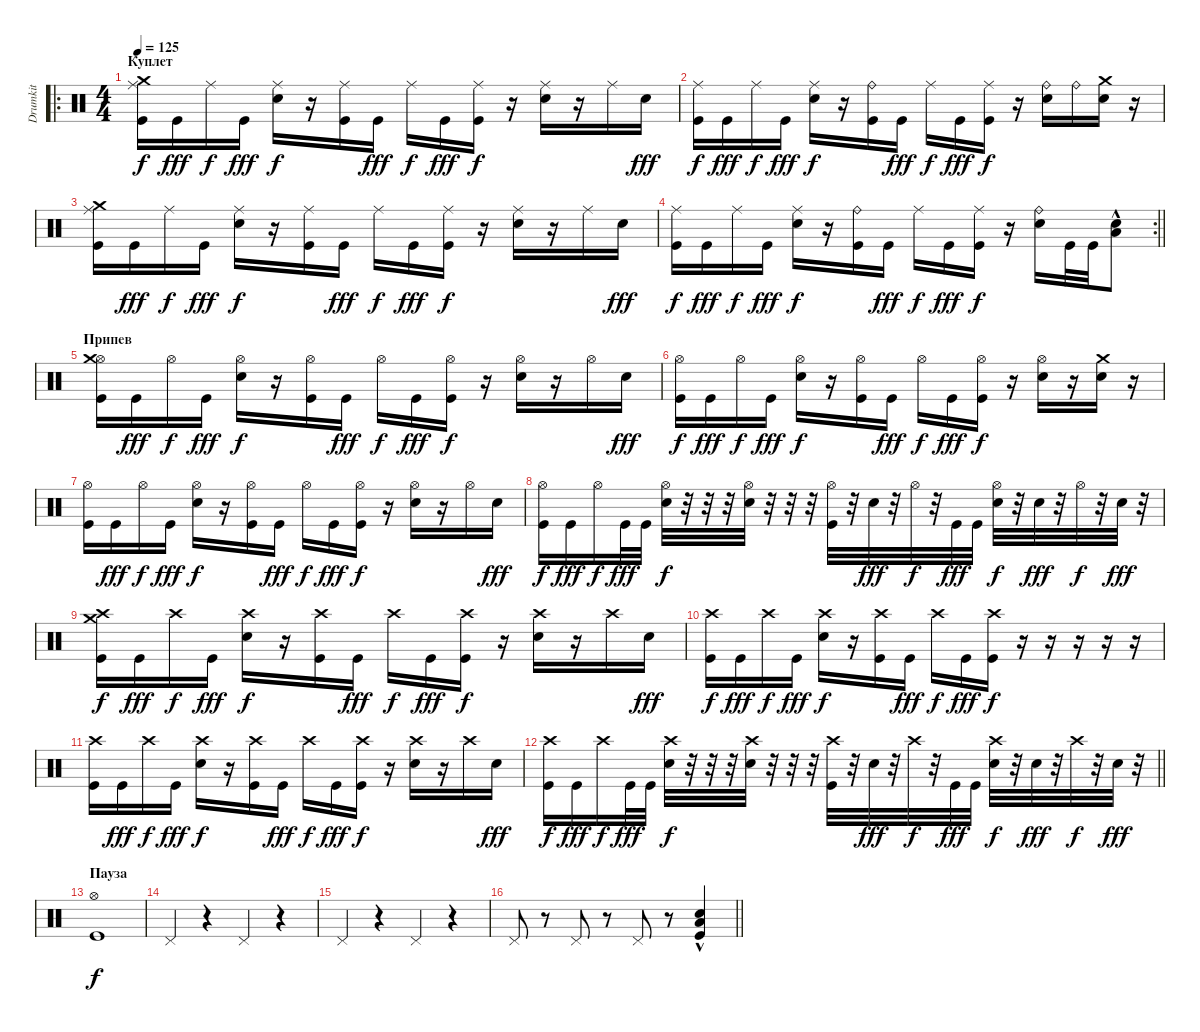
\track ("Drumkit" "Drumkit") {instrument percussion}
\staff {score}
\articulation defaults
\ro
\ts (4 4)
\section ("" "Куплет")
\tempo 125
\clef neutral
\ks c
("Ride (middle)" "Crash medium (hit)" "Kick (hit)").16{dy f} "Kick (hit)".16{dy fff} "Ride (middle)".16{dy f} "Kick (hit)".16{dy fff} ("Ride (middle)" "Snare (hit) 2").16{dy f} r.16 ("Ride (middle)" "Kick (hit)").16 "Kick (hit)".16{dy fff} "Ride (middle)".16{dy f} "Kick (hit)".16{dy fff} ("Ride (middle)" "Kick (hit)").16{dy f} r.16 ("Ride (middle)" "Snare (hit) 2").16 r.16 "Ride (middle)".16 "Snare (hit) 2".16{dy fff} |
("Ride (middle)" "Kick (hit)").16{dy f} "Kick (hit)".16{dy fff} "Ride (middle)".16{dy f} "Kick (hit)".16{dy fff} ("Ride (middle)" "Snare (hit) 2").16{dy f} r.16 ("Ride (bell)" "Kick (hit)").16 "Kick (hit)".16{dy fff} "Ride (middle)".16{dy f} "Kick (hit)".16{dy fff} ("Ride (middle)" "Kick (hit)").16{dy f} r.16 ("Ride (bell)" "Snare (hit) 2").16 "Ride (bell)".16 ("Crash medium (hit)" "Snare (hit) 2").16 r.16 |
("Ride (middle)" "Crash medium (hit)" "Kick (hit)").16 "Kick (hit)".16{dy fff} "Ride (middle)".16{dy f} "Kick (hit)".16{dy fff} ("Ride (middle)" "Snare (hit) 2").16{dy f} r.16 ("Ride (middle)" "Kick (hit)").16 "Kick (hit)".16{dy fff} "Ride (middle)".16{dy f} "Kick (hit)".16{dy fff} ("Ride (middle)" "Kick (hit)").16{dy f} r.16 ("Ride (middle)" "Snare (hit) 2").16 r.16 "Ride (middle)".16 "Snare (hit) 2".16{dy fff} |
\rc 2
\barLineRight lightlight
("Ride (middle)" "Kick (hit)").16{dy f} "Kick (hit)".16{dy fff} "Ride (middle)".16{dy f} "Kick (hit)".16{dy fff} ("Ride (middle)" "Snare (hit) 2").16{dy f} r.16 ("Ride (bell)" "Kick (hit)").16 "Kick (hit)".16{dy fff} "Ride (middle)".16{dy f} "Kick (hit)".16{dy fff} ("Ride (middle)" "Kick (hit)").16{dy f} r.16 ("Ride (bell)" "Snare (hit) 2").16 "Kick (hit)".32 "Kick (hit)".32 ("Snare (hit) 2"{hac} "Low Floor Tom (hit)"{hac}).8 |
\section ("" "Припев")
("Hi-Hat (open)" "Crash medium (hit)" "Kick (hit)").16 "Kick (hit)".16{dy fff} "Hi-Hat (open)".16{dy f} "Kick (hit)".16{dy fff} ("Hi-Hat (open)" "Snare (hit) 2").16{dy f} r.16 ("Hi-Hat (open)" "Kick (hit)").16 "Kick (hit)".16{dy fff} "Hi-Hat (open)".16{dy f} "Kick (hit)".16{dy fff} ("Hi-Hat (open)" "Kick (hit)").16{dy f} r.16 ("Hi-Hat (open)" "Snare (hit) 2").16 r.16 "Hi-Hat (open)".16 "Snare (hit) 2".16{dy fff} |
("Hi-Hat (open)" "Kick (hit)").16{dy f} "Kick (hit)".16{dy fff} "Hi-Hat (open)".16{dy f} "Kick (hit)".16{dy fff} ("Hi-Hat (open)" "Snare (hit) 2").16{dy f} r.16 ("Hi-Hat (open)" "Kick (hit)").16 "Kick (hit)".16{dy fff} "Hi-Hat (open)".16{dy f} "Kick (hit)".16{dy fff} ("Hi-Hat (open)" "Kick (hit)").16{dy f} r.16 ("Hi-Hat (open)" "Snare (hit) 2").16 r.16 ("Crash medium (hit)" "Snare (hit) 2").16 r.16 |
("Hi-Hat (open)" "Kick (hit)").16 "Kick (hit)".16{dy fff} "Hi-Hat (open)".16{dy f} "Kick (hit)".16{dy fff} ("Hi-Hat (open)" "Snare (hit) 2").16{dy f} r.16 ("Hi-Hat (open)" "Kick (hit)").16 "Kick (hit)".16{dy fff} "Hi-Hat (open)".16{dy f} "Kick (hit)".16{dy fff} ("Hi-Hat (open)" "Kick (hit)").16{dy f} r.16 ("Hi-Hat (open)" "Snare (hit) 2").16 r.16 "Hi-Hat (open)".16 "Snare (hit) 2".16{dy fff} |
("Hi-Hat (open)" "Kick (hit)").16{dy f} "Kick (hit)".16{dy fff} "Hi-Hat (open)".16{dy f} "Kick (hit)".32{dy fff} "Kick (hit)".32 ("Hi-Hat (open)" "Snare (hit) 2").32{dy f} r.32 r.32 r.32 ("Hi-Hat (open)" "Snare (hit) 2").32 r.32 r.32 r.32 ("Hi-Hat (open)" "Kick (hit)").32 r.32 "Snare (hit) 2".32{dy fff} r.32 "Hi-Hat (open)".32{dy f} r.32 "Kick (hit)".32{dy fff} "Kick (hit)".32 ("Hi-Hat (open)" "Snare (hit) 2").32{dy f} r.32 "Snare (hit) 2".32{dy fff} r.32 "Hi-Hat (open)".32{dy f} r.32 "Snare (hit) 2".32{dy fff} r.32 |
("Crash high (hit)" "Crash medium (hit)" "Kick (hit)").16{dy f} "Kick (hit)".16{dy fff} "Crash high (hit)".16{dy f} "Kick (hit)".16{dy fff} ("Crash high (hit)" "Snare (hit) 2").16{dy f} r.16 ("Crash high (hit)" "Kick (hit)").16 "Kick (hit)".16{dy fff} "Crash high (hit)".16{dy f} "Kick (hit)".16{dy fff} ("Crash high (hit)" "Kick (hit)").16{dy f} r.16 ("Crash high (hit)" "Snare (hit) 2").16 r.16 "Crash high (hit)".16 "Snare (hit) 2".16{dy fff} |
("Crash high (hit)" "Kick (hit)").16{dy f} "Kick (hit)".16{dy fff} "Crash high (hit)".16{dy f} "Kick (hit)".16{dy fff} ("Crash high (hit)" "Snare (hit) 2").16{dy f} r.16 ("Crash high (hit)" "Kick (hit)").16 "Kick (hit)".16{dy fff} "Crash high (hit)".16{dy f} "Kick (hit)".16{dy fff} ("Crash high (hit)" "Kick (hit)").16{dy f} r.16 r.16 r.16 r.16 r.16 |
("Crash high (hit)" "Kick (hit)").16 "Kick (hit)".16{dy fff} "Crash high (hit)".16{dy f} "Kick (hit)".16{dy fff} ("Crash high (hit)" "Snare (hit) 2").16{dy f} r.16 ("Crash high (hit)" "Kick (hit)").16 "Kick (hit)".16{dy fff} "Crash high (hit)".16{dy f} "Kick (hit)".16{dy fff} ("Crash high (hit)" "Kick (hit)").16{dy f} r.16 ("Crash high (hit)" "Snare (hit) 2").16 r.16 "Crash high (hit)".16 "Snare (hit) 2".16{dy fff} |
\barLineRight lightlight
("Crash high (hit)" "Kick (hit)").16{dy f} "Kick (hit)".16{dy fff} "Crash high (hit)".16{dy f} "Kick (hit)".32{dy fff} "Kick (hit)".32 ("Crash high (hit)" "Snare (hit) 2").32{dy f} r.32 r.32 r.32 ("Crash high (hit)" "Snare (hit) 2").32 r.32 r.32 r.32 ("Crash high (hit)" "Kick (hit)").32 r.32 "Snare (hit) 2".32{dy fff} r.32 "Crash high (hit)".32{dy f} r.32 "Kick (hit)".32{dy fff} "Kick (hit)".32 ("Crash high (hit)" "Snare (hit) 2").32{dy f} r.32 "Snare (hit) 2".32{dy fff} r.32 "Crash high (hit)".32{dy f} r.32 "Snare (hit) 2".32{dy fff} r.32 |
\section ("" "Пауза")
("Kick (hit)" "Hi-Hat (open)").1{dy f} |
"Pedal Hi-Hat (hit)".4 r.4 "Pedal Hi-Hat (hit)".4 r.4 |
"Pedal Hi-Hat (hit)".4 r.4 "Pedal Hi-Hat (hit)".4 r.4 |
\barLineRight lightlight "Pedal Hi-Hat (hit)".8
r.8 "Pedal Hi-Hat (hit)".8 r.8 "Pedal Hi-Hat (hit)".8 r.8 ("Snare (hit) 2"{hac} "Low Floor Tom (hit)"{hac} "Kick (hit)"{hac}).4
